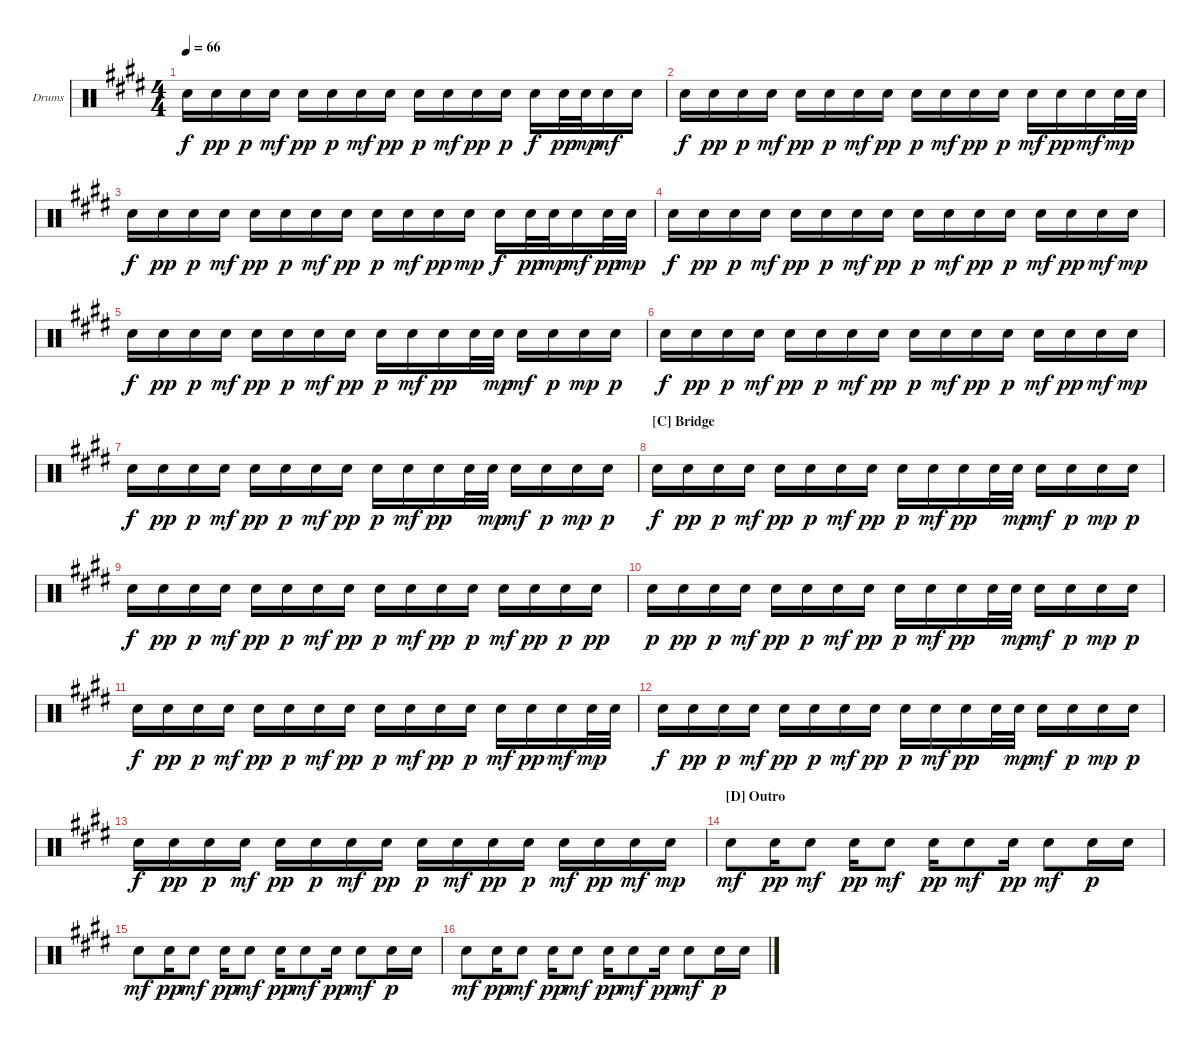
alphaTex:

\defaultSystemsLayout 4
\bracketExtendMode groupsimilarinstruments
\firstSystemTrackNameOrientation horizontal
\otherSystemsTrackNameOrientation horizontal
\track ("Drumkit" "Drums") {instrument percussion}
\staff {score}
\articulation defaults
\ts (4 4)
\tempo 66
\clef neutral
\ks c#minor "Snare (hit) 2".16{dy f} "Snare (hit) 2".16{dy pp} "Snare (hit) 2".16{dy p} "Snare (hit) 2".16{dy mf} "Snare (hit) 2".16{dy pp} "Snare (hit) 2".16{dy p} "Snare (hit) 2".16{dy mf} "Snare (hit) 2".16{dy pp} "Snare (hit) 2".16{dy p} "Snare (hit) 2".16{dy mf} "Snare (hit) 2".16{dy pp} "Snare (hit) 2".16{dy p} "Snare (hit) 2".16{dy f} "Snare (hit) 2".32{dy pp} "Snare (hit) 2".32{dy mp} "Snare (hit) 2".16{dy mf} "Snare (hit) 2".16
|
"Snare (hit) 2".16{dy f} "Snare (hit) 2".16{dy pp} "Snare (hit) 2".16{dy p} "Snare (hit) 2".16{dy mf} "Snare (hit) 2".16{dy pp} "Snare (hit) 2".16{dy p} "Snare (hit) 2".16{dy mf} "Snare (hit) 2".16{dy pp} "Snare (hit) 2".16{dy p} "Snare (hit) 2".16{dy mf} "Snare (hit) 2".16{dy pp} "Snare (hit) 2".16{dy p} "Snare (hit) 2".16{dy mf} "Snare (hit) 2".16{dy pp} "Snare (hit) 2".16{dy mf} "Snare (hit) 2".32{dy mp} "Snare (hit) 2".32 |
"Snare (hit) 2".16{dy f} "Snare (hit) 2".16{dy pp} "Snare (hit) 2".16{dy p} "Snare (hit) 2".16{dy mf} "Snare (hit) 2".16{dy pp} "Snare (hit) 2".16{dy p} "Snare (hit) 2".16{dy mf} "Snare (hit) 2".16{dy pp} "Snare (hit) 2".16{dy p} "Snare (hit) 2".16{dy mf} "Snare (hit) 2".16{dy pp} "Snare (hit) 2".16{dy mp} "Snare (hit) 2".16{dy f} "Snare (hit) 2".32{dy pp} "Snare (hit) 2".32{dy mp} "Snare (hit) 2".16{dy mf} "Snare (hit) 2".32{dy pp} "Snare (hit) 2".32{dy mp} |
"Snare (hit) 2".16{dy f} "Snare (hit) 2".16{dy pp} "Snare (hit) 2".16{dy p} "Snare (hit) 2".16{dy mf} "Snare (hit) 2".16{dy pp} "Snare (hit) 2".16{dy p} "Snare (hit) 2".16{dy mf} "Snare (hit) 2".16{dy pp} "Snare (hit) 2".16{dy p} "Snare (hit) 2".16{dy mf} "Snare (hit) 2".16{dy pp} "Snare (hit) 2".16{dy p} "Snare (hit) 2".16{dy mf} "Snare (hit) 2".16{dy pp} "Snare (hit) 2".16{dy mf} "Snare (hit) 2".16{dy mp} |
"Snare (hit) 2".16{dy f} "Snare (hit) 2".16{dy pp} "Snare (hit) 2".16{dy p} "Snare (hit) 2".16{dy mf} "Snare (hit) 2".16{dy pp} "Snare (hit) 2".16{dy p} "Snare (hit) 2".16{dy mf} "Snare (hit) 2".16{dy pp} "Snare (hit) 2".16{dy p} "Snare (hit) 2".16{dy mf} "Snare (hit) 2".16{dy pp} "Snare (hit) 2".32 "Snare (hit) 2".32{dy mp} "Snare (hit) 2".16{dy mf} "Snare (hit) 2".16{dy p} "Snare (hit) 2".16{dy mp} "Snare (hit) 2".16{dy p} |
"Snare (hit) 2".16{dy f} "Snare (hit) 2".16{dy pp} "Snare (hit) 2".16{dy p} "Snare (hit) 2".16{dy mf} "Snare (hit) 2".16{dy pp} "Snare (hit) 2".16{dy p} "Snare (hit) 2".16{dy mf} "Snare (hit) 2".16{dy pp} "Snare (hit) 2".16{dy p} "Snare (hit) 2".16{dy mf} "Snare (hit) 2".16{dy pp} "Snare (hit) 2".16{dy p} "Snare (hit) 2".16{dy mf} "Snare (hit) 2".16{dy pp} "Snare (hit) 2".16{dy mf} "Snare (hit) 2".16{dy mp} |
"Snare (hit) 2".16{dy f} "Snare (hit) 2".16{dy pp} "Snare (hit) 2".16{dy p} "Snare (hit) 2".16{dy mf} "Snare (hit) 2".16{dy pp} "Snare (hit) 2".16{dy p} "Snare (hit) 2".16{dy mf} "Snare (hit) 2".16{dy pp} "Snare (hit) 2".16{dy p} "Snare (hit) 2".16{dy mf} "Snare (hit) 2".16{dy pp} "Snare (hit) 2".32 "Snare (hit) 2".32{dy mp} "Snare (hit) 2".16{dy mf} "Snare (hit) 2".16{dy p} "Snare (hit) 2".16{dy mp} "Snare (hit) 2".16{dy p} |
\section ("C" "Bridge")
"Snare (hit) 2".16{dy f} "Snare (hit) 2".16{dy pp} "Snare (hit) 2".16{dy p} "Snare (hit) 2".16{dy mf} "Snare (hit) 2".16{dy pp} "Snare (hit) 2".16{dy p} "Snare (hit) 2".16{dy mf} "Snare (hit) 2".16{dy pp} "Snare (hit) 2".16{dy p} "Snare (hit) 2".16{dy mf} "Snare (hit) 2".16{dy pp} "Snare (hit) 2".32 "Snare (hit) 2".32{dy mp} "Snare (hit) 2".16{dy mf} "Snare (hit) 2".16{dy p} "Snare (hit) 2".16{dy mp} "Snare (hit) 2".16{dy p} |
"Snare (hit) 2".16{dy f} "Snare (hit) 2".16{dy pp} "Snare (hit) 2".16{dy p} "Snare (hit) 2".16{dy mf} "Snare (hit) 2".16{dy pp} "Snare (hit) 2".16{dy p} "Snare (hit) 2".16{dy mf} "Snare (hit) 2".16{dy pp} "Snare (hit) 2".16{dy p} "Snare (hit) 2".16{dy mf} "Snare (hit) 2".16{dy pp} "Snare (hit) 2".16{dy p} "Snare (hit) 2".16{dy mf} "Snare (hit) 2".16{dy pp} "Snare (hit) 2".16{dy p} "Snare (hit) 2".16{dy pp} |
"Snare (hit) 2".16{dy p} "Snare (hit) 2".16{dy pp} "Snare (hit) 2".16{dy p} "Snare (hit) 2".16{dy mf} "Snare (hit) 2".16{dy pp} "Snare (hit) 2".16{dy p} "Snare (hit) 2".16{dy mf} "Snare (hit) 2".16{dy pp} "Snare (hit) 2".16{dy p} "Snare (hit) 2".16{dy mf} "Snare (hit) 2".16{dy pp} "Snare (hit) 2".32 "Snare (hit) 2".32{dy mp} "Snare (hit) 2".16{dy mf} "Snare (hit) 2".16{dy p} "Snare (hit) 2".16{dy mp} "Snare (hit) 2".16{dy p} |
"Snare (hit) 2".16{dy f} "Snare (hit) 2".16{dy pp} "Snare (hit) 2".16{dy p} "Snare (hit) 2".16{dy mf} "Snare (hit) 2".16{dy pp} "Snare (hit) 2".16{dy p} "Snare (hit) 2".16{dy mf} "Snare (hit) 2".16{dy pp} "Snare (hit) 2".16{dy p} "Snare (hit) 2".16{dy mf} "Snare (hit) 2".16{dy pp} "Snare (hit) 2".16{dy p} "Snare (hit) 2".16{dy mf} "Snare (hit) 2".16{dy pp} "Snare (hit) 2".16{dy mf} "Snare (hit) 2".32{dy mp} "Snare (hit) 2".32 |
"Snare (hit) 2".16{dy f} "Snare (hit) 2".16{dy pp} "Snare (hit) 2".16{dy p} "Snare (hit) 2".16{dy mf} "Snare (hit) 2".16{dy pp} "Snare (hit) 2".16{dy p} "Snare (hit) 2".16{dy mf} "Snare (hit) 2".16{dy pp} "Snare (hit) 2".16{dy p} "Snare (hit) 2".16{dy mf} "Snare (hit) 2".16{dy pp} "Snare (hit) 2".32 "Snare (hit) 2".32{dy mp} "Snare (hit) 2".16{dy mf} "Snare (hit) 2".16{dy p} "Snare (hit) 2".16{dy mp} "Snare (hit) 2".16{dy p} |
"Snare (hit) 2".16{dy f} "Snare (hit) 2".16{dy pp} "Snare (hit) 2".16{dy p} "Snare (hit) 2".16{dy mf} "Snare (hit) 2".16{dy pp} "Snare (hit) 2".16{dy p} "Snare (hit) 2".16{dy mf} "Snare (hit) 2".16{dy pp} "Snare (hit) 2".16{dy p} "Snare (hit) 2".16{dy mf} "Snare (hit) 2".16{dy pp} "Snare (hit) 2".16{dy p} "Snare (hit) 2".16{dy mf} "Snare (hit) 2".16{dy pp} "Snare (hit) 2".16{dy mf} "Snare (hit) 2".16{dy mp} |
\section ("D" "Outro")
"Snare (hit) 2".8{dy mf} "Snare (hit) 2".16{dy pp} "Snare (hit) 2".8{dy mf} "Snare (hit) 2".16{dy pp} "Snare (hit) 2".8{dy mf} "Snare (hit) 2".16{dy pp} "Snare (hit) 2".8{dy mf} "Snare (hit) 2".16{dy pp} "Snare (hit) 2".8{dy mf} "Snare (hit) 2".16{dy p} "Snare (hit) 2".16 |
"Snare (hit) 2".8{dy mf} "Snare (hit) 2".16{dy pp} "Snare (hit) 2".8{dy mf} "Snare (hit) 2".16{dy pp} "Snare (hit) 2".8{dy mf} "Snare (hit) 2".16{dy pp} "Snare (hit) 2".8{dy mf} "Snare (hit) 2".16{dy pp} "Snare (hit) 2".8{dy mf} "Snare (hit) 2".16{dy p} "Snare (hit) 2".16 |
"Snare (hit) 2".8{dy mf} "Snare (hit) 2".16{dy pp} "Snare (hit) 2".8{dy mf} "Snare (hit) 2".16{dy pp} "Snare (hit) 2".8{dy mf} "Snare (hit) 2".16{dy pp} "Snare (hit) 2".8{dy mf} "Snare (hit) 2".16{dy pp} "Snare (hit) 2".8{dy mf} "Snare (hit) 2".16{dy p} "Snare (hit) 2".16
